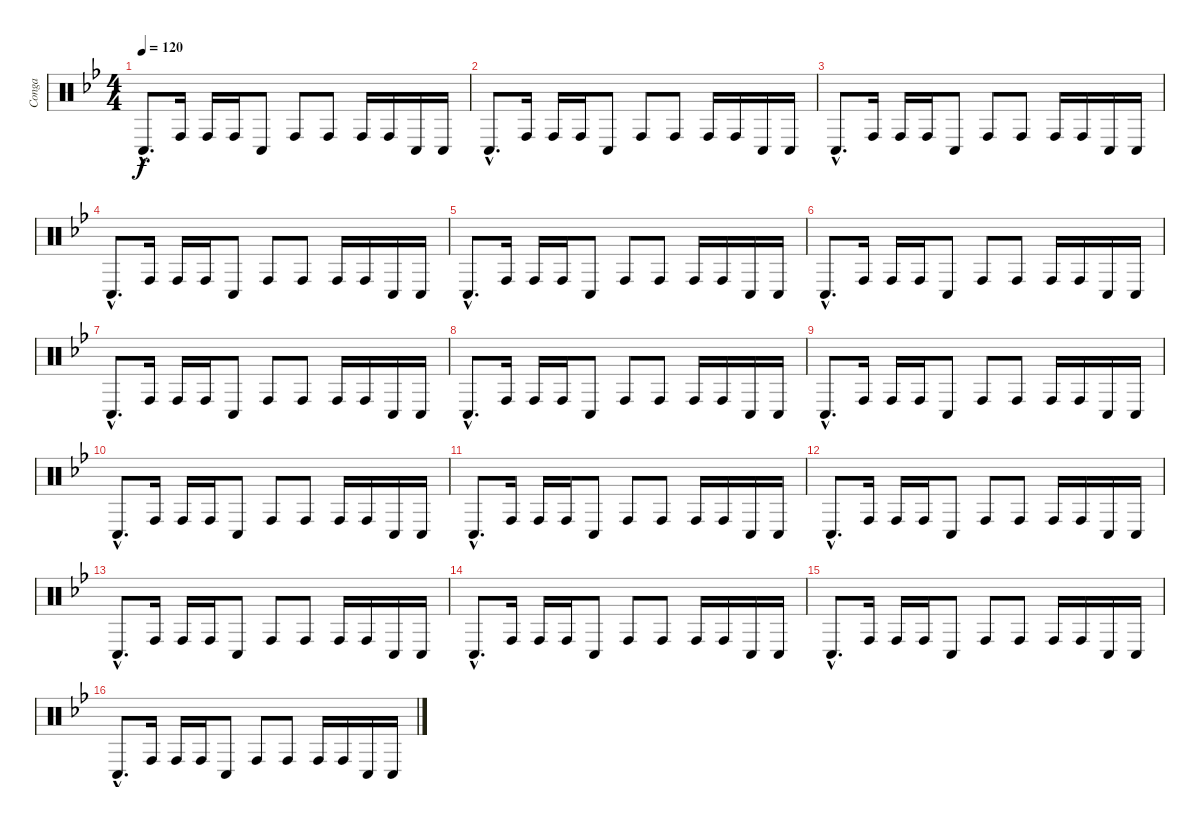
\track ("Conga" "Conga") {instrument percussion}
\staff {score}
\articulation defaults
\ts (4 4)
\tempo 120
\clef neutral
\ks bb "Conga low (hit)"{hac}.8{d dy f} "Conga high (hit)".16 "Conga high (hit)".16 "Conga high (hit)".16 "Conga low (hit)".8 "Conga high (hit)".8 "Conga high (hit)".8 "Conga high (hit)".16 "Conga high (hit)".16 "Conga low (hit)".16 "Conga low (hit)".16
|
"Conga low (hit)"{hac}.8{d} "Conga high (hit)".16 "Conga high (hit)".16 "Conga high (hit)".16 "Conga low (hit)".8 "Conga high (hit)".8 "Conga high (hit)".8 "Conga high (hit)".16 "Conga high (hit)".16 "Conga low (hit)".16 "Conga low (hit)".16 |
"Conga low (hit)"{hac}.8{d} "Conga high (hit)".16 "Conga high (hit)".16 "Conga high (hit)".16 "Conga low (hit)".8 "Conga high (hit)".8 "Conga high (hit)".8 "Conga high (hit)".16 "Conga high (hit)".16 "Conga low (hit)".16 "Conga low (hit)".16 |
"Conga low (hit)"{hac}.8{d} "Conga high (hit)".16 "Conga high (hit)".16 "Conga high (hit)".16 "Conga low (hit)".8 "Conga high (hit)".8 "Conga high (hit)".8 "Conga high (hit)".16 "Conga high (hit)".16 "Conga low (hit)".16 "Conga low (hit)".16 |
"Conga low (hit)"{hac}.8{d} "Conga high (hit)".16 "Conga high (hit)".16 "Conga high (hit)".16 "Conga low (hit)".8 "Conga high (hit)".8 "Conga high (hit)".8 "Conga high (hit)".16 "Conga high (hit)".16 "Conga low (hit)".16 "Conga low (hit)".16 |
"Conga low (hit)"{hac}.8{d} "Conga high (hit)".16 "Conga high (hit)".16 "Conga high (hit)".16 "Conga low (hit)".8 "Conga high (hit)".8 "Conga high (hit)".8 "Conga high (hit)".16 "Conga high (hit)".16 "Conga low (hit)".16 "Conga low (hit)".16 |
"Conga low (hit)"{hac}.8{d} "Conga high (hit)".16 "Conga high (hit)".16 "Conga high (hit)".16 "Conga low (hit)".8 "Conga high (hit)".8 "Conga high (hit)".8 "Conga high (hit)".16 "Conga high (hit)".16 "Conga low (hit)".16 "Conga low (hit)".16 |
"Conga low (hit)"{hac}.8{d} "Conga high (hit)".16 "Conga high (hit)".16 "Conga high (hit)".16 "Conga low (hit)".8 "Conga high (hit)".8 "Conga high (hit)".8 "Conga high (hit)".16 "Conga high (hit)".16 "Conga low (hit)".16 "Conga low (hit)".16 |
"Conga low (hit)"{hac}.8{d} "Conga high (hit)".16 "Conga high (hit)".16 "Conga high (hit)".16 "Conga low (hit)".8 "Conga high (hit)".8 "Conga high (hit)".8 "Conga high (hit)".16 "Conga high (hit)".16 "Conga low (hit)".16 "Conga low (hit)".16 |
"Conga low (hit)"{hac}.8{d} "Conga high (hit)".16 "Conga high (hit)".16 "Conga high (hit)".16 "Conga low (hit)".8 "Conga high (hit)".8 "Conga high (hit)".8 "Conga high (hit)".16 "Conga high (hit)".16 "Conga low (hit)".16 "Conga low (hit)".16 |
"Conga low (hit)"{hac}.8{d} "Conga high (hit)".16 "Conga high (hit)".16 "Conga high (hit)".16 "Conga low (hit)".8 "Conga high (hit)".8 "Conga high (hit)".8 "Conga high (hit)".16 "Conga high (hit)".16 "Conga low (hit)".16 "Conga low (hit)".16 |
"Conga low (hit)"{hac}.8{d} "Conga high (hit)".16 "Conga high (hit)".16 "Conga high (hit)".16 "Conga low (hit)".8 "Conga high (hit)".8 "Conga high (hit)".8 "Conga high (hit)".16 "Conga high (hit)".16 "Conga low (hit)".16 "Conga low (hit)".16 |
"Conga low (hit)"{hac}.8{d} "Conga high (hit)".16 "Conga high (hit)".16 "Conga high (hit)".16 "Conga low (hit)".8 "Conga high (hit)".8 "Conga high (hit)".8 "Conga high (hit)".16 "Conga high (hit)".16 "Conga low (hit)".16 "Conga low (hit)".16 |
"Conga low (hit)"{hac}.8{d} "Conga high (hit)".16 "Conga high (hit)".16 "Conga high (hit)".16 "Conga low (hit)".8 "Conga high (hit)".8 "Conga high (hit)".8 "Conga high (hit)".16 "Conga high (hit)".16 "Conga low (hit)".16 "Conga low (hit)".16 |
"Conga low (hit)"{hac}.8{d} "Conga high (hit)".16 "Conga high (hit)".16 "Conga high (hit)".16 "Conga low (hit)".8 "Conga high (hit)".8 "Conga high (hit)".8 "Conga high (hit)".16 "Conga high (hit)".16 "Conga low (hit)".16 "Conga low (hit)".16 |
"Conga low (hit)"{hac}.8{d} "Conga high (hit)".16 "Conga high (hit)".16 "Conga high (hit)".16 "Conga low (hit)".8 "Conga high (hit)".8 "Conga high (hit)".8 "Conga high (hit)".16 "Conga high (hit)".16 "Conga low (hit)".16 "Conga low (hit)".16
